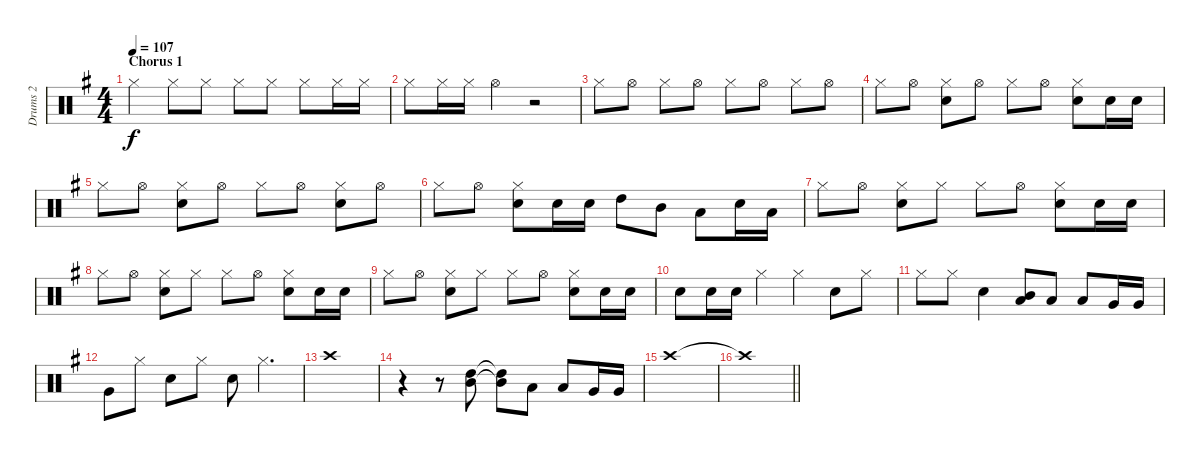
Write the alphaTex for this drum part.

\track ("Drums 2" "Drums 2") {instrument percussion}
\staff {score}
\articulation defaults
\ts (4 4)
\section ("" "Chorus 1")
\tempo 107
\clef neutral
\ks g "Hi-Hat (closed)".4{dy f} "Hi-Hat (closed)".8 "Hi-Hat (closed)".8 "Hi-Hat (closed)".8 "Hi-Hat (closed)".8 "Hi-Hat (closed)".8 "Hi-Hat (closed)".16 "Hi-Hat (closed)".16
|
"Hi-Hat (closed)".8 "Hi-Hat (closed)".16 "Hi-Hat (closed)".16 "Hi-Hat (open)".4 r.2 |
"Hi-Hat (closed)".8 "Hi-Hat (open)".8 "Hi-Hat (closed)".8 "Hi-Hat (open)".8 "Hi-Hat (closed)".8 "Hi-Hat (open)".8 "Hi-Hat (closed)".8 "Hi-Hat (open)".8 |
"Hi-Hat (closed)".8 "Hi-Hat (open)".8 ("Hi-Hat (closed)" "Snare (hit) 2").8 "Hi-Hat (open)".8 "Hi-Hat (closed)".8 "Hi-Hat (open)".8 ("Hi-Hat (closed)" "Snare (hit) 2").8 "Snare (hit) 2".16 "Snare (hit) 2".16 |
"Hi-Hat (closed)".8 "Hi-Hat (open)".8 ("Hi-Hat (closed)" "Snare (hit) 2").8 "Hi-Hat (open)".8 "Hi-Hat (closed)".8 "Hi-Hat (open)".8 ("Hi-Hat (closed)" "Snare (hit) 2").8 "Hi-Hat (open)".8 |
"Hi-Hat (closed)".8 "Hi-Hat (open)".8 ("Hi-Hat (closed)" "Snare (hit) 2").8 "Snare (hit) 2".16 "Snare (hit) 2".16 "High Tom (hit)".8 "Mid Tom (hit)".8 "Low Tom (hit)".8 "Snare (hit) 2".16 "Low Tom (hit)".16 |
"Hi-Hat (closed)".8 "Hi-Hat (open)".8 ("Snare (hit) 2" "Hi-Hat (closed)").8 "Hi-Hat (closed)".8 "Hi-Hat (closed)".8 "Hi-Hat (open)".8 ("Snare (hit) 2" "Hi-Hat (closed)").8 "Snare (hit) 2".16 "Snare (hit) 2".16 |
"Hi-Hat (closed)".8 "Hi-Hat (open)".8 ("Snare (hit) 2" "Hi-Hat (closed)").8 "Hi-Hat (closed)".8 "Hi-Hat (closed)".8 "Hi-Hat (open)".8 ("Snare (hit) 2" "Hi-Hat (closed)").8 "Snare (hit) 2".16 "Snare (hit) 2".16 |
"Hi-Hat (closed)".8 "Hi-Hat (open)".8 ("Hi-Hat (closed)" "Snare (hit) 2").8 "Hi-Hat (closed)".8 "Hi-Hat (closed)".8 "Hi-Hat (open)".8 ("Snare (hit) 2" "Hi-Hat (closed)").8 "Snare (hit) 2".16 "Snare (hit) 2".16 |
"Snare (hit) 2".8 "Snare (hit) 2".16 "Snare (hit) 2".16 "Hi-Hat (closed)".4 "Hi-Hat (closed)".4 "Snare (hit) 2".8 "Hi-Hat (closed)".8 |
"Hi-Hat (closed)".8 "Hi-Hat (closed)".8 "Snare (hit) 2".4 ("Low Tom (hit)" "Mid Tom (hit)").8 "Low Tom (hit)".8 "Low Tom (hit)".8 "Very Low Tom (hit)".16 "Very Low Tom (hit)".16 |
"Very Low Tom (hit)".8 "Hi-Hat (closed)".8 "Snare (hit) 2".8 "Hi-Hat (closed)".8 "Snare (hit) 2".8 "Hi-Hat (closed)".4{d} |
"Crash high (hit)".1 |
r.4 r.8 ("High Tom (hit)" "Mid Tom (hit)").8 ("High Tom (hit)"{t} "Mid Tom (hit)"{t}).8 "Low Tom (hit)".8 "Low Tom (hit)".8 "Very Low Tom (hit)".16 "Very Low Tom (hit)".16 |
"Crash high (hit)".1 |
\barLineRight lightlight "Crash high (hit)"{t}.1
